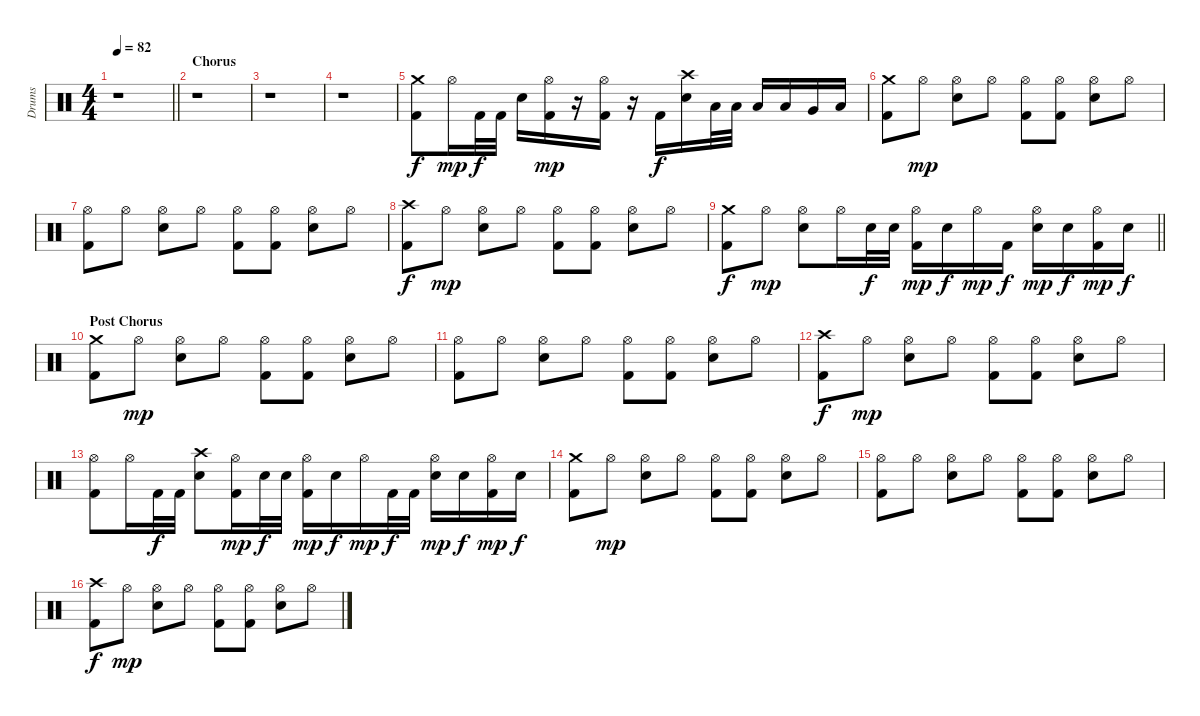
\track ("Drums" "Drums") {instrument percussion}
\staff {score}
\articulation defaults
\ts (4 4)
\tempo 82
\clef neutral
\barLineRight lightlight
\ks c
r.1{dy f} |
\section ("" "Chorus")
r.1 |
r.1 |
r.1 |
("Crash medium (hit)" "Kick (hit) 2").8 "Hi-Hat (open)".16{dy mp} "Kick (hit) 2".32{dy f} "Kick (hit) 2".32 "Snare (hit) 2".16 ("Hi-Hat (open)" "Kick (hit) 2").16{dy mp} r.16 ("Hi-Hat (open)" "Kick (hit) 2").16 r.16 "Kick (hit) 2".16{dy f} ("Crash high (hit)" "Snare (hit) 2").16 "Low Tom (hit)".32 "Low Tom (hit)".32 "Low Tom (hit)".16 "Low Tom (hit)".16 "Very Low Tom (hit)".16 "Low Floor Tom (hit)".16 |
("Crash medium (hit)" "Kick (hit) 2").8 "Hi-Hat (open)".8{dy mp} ("Hi-Hat (open)" "Snare (hit) 2").8 "Hi-Hat (open)".8 ("Hi-Hat (open)" "Kick (hit) 2").8 ("Hi-Hat (open)" "Kick (hit) 2").8 ("Hi-Hat (open)" "Snare (hit) 2").8 "Hi-Hat (open)".8 |
("Hi-Hat (open)" "Kick (hit) 2").8 "Hi-Hat (open)".8 ("Hi-Hat (open)" "Snare (hit) 2").8 "Hi-Hat (open)".8 ("Hi-Hat (open)" "Kick (hit) 2").8 ("Hi-Hat (open)" "Kick (hit) 2").8 ("Hi-Hat (open)" "Snare (hit) 2").8 "Hi-Hat (open)".8 |
("Crash high (hit)" "Kick (hit) 2").8{dy f} "Hi-Hat (open)".8{dy mp} ("Hi-Hat (open)" "Snare (hit) 2").8 "Hi-Hat (open)".8 ("Hi-Hat (open)" "Kick (hit) 2").8 ("Hi-Hat (open)" "Kick (hit) 2").8 ("Hi-Hat (open)" "Snare (hit) 2").8 "Hi-Hat (open)".8 |
\barLineRight lightlight
("Crash medium (hit)" "Kick (hit) 2").8{dy f} "Hi-Hat (open)".8{dy mp} ("Hi-Hat (open)" "Snare (hit) 2").8 "Hi-Hat (open)".16 "Snare (hit) 2".32{dy f} "Snare (hit) 2".32 ("Hi-Hat (open)" "Kick (hit) 2").16{dy mp} "Snare (hit) 2".16{dy f} "Hi-Hat (open)".16{dy mp} "Kick (hit) 2".16{dy f} ("Hi-Hat (open)" "Snare (hit) 2").16{dy mp} "Snare (hit) 2".16{dy f} ("Hi-Hat (open)" "Kick (hit) 2").16{dy mp} "Snare (hit) 2".16{dy f} |
\section ("" "Post Chorus")
("Crash medium (hit)" "Kick (hit) 2").8 "Hi-Hat (open)".8{dy mp} ("Hi-Hat (open)" "Snare (hit) 2").8 "Hi-Hat (open)".8 ("Hi-Hat (open)" "Kick (hit) 2").8 ("Hi-Hat (open)" "Kick (hit) 2").8 ("Hi-Hat (open)" "Snare (hit) 2").8 "Hi-Hat (open)".8 |
("Hi-Hat (open)" "Kick (hit) 2").8 "Hi-Hat (open)".8 ("Hi-Hat (open)" "Snare (hit) 2").8 "Hi-Hat (open)".8 ("Hi-Hat (open)" "Kick (hit) 2").8 ("Hi-Hat (open)" "Kick (hit) 2").8 ("Hi-Hat (open)" "Snare (hit) 2").8 "Hi-Hat (open)".8 |
("Crash high (hit)" "Kick (hit) 2").8{dy f} "Hi-Hat (open)".8{dy mp} ("Hi-Hat (open)" "Snare (hit) 2").8 "Hi-Hat (open)".8 ("Hi-Hat (open)" "Kick (hit) 2").8 ("Hi-Hat (open)" "Kick (hit) 2").8 ("Hi-Hat (open)" "Snare (hit) 2").8 "Hi-Hat (open)".8 |
("Hi-Hat (open)" "Kick (hit) 2").8 "Hi-Hat (open)".16 "Kick (hit) 2".32{dy f} "Kick (hit) 2".32 ("Crash high (hit)" "Snare (hit) 2").8 ("Hi-Hat (open)" "Kick (hit) 2").16{dy mp} "Snare (hit) 2".32{dy f} "Snare (hit) 2".32 ("Hi-Hat (open)" "Kick (hit) 2").16{dy mp} "Snare (hit) 2".16{dy f} "Hi-Hat (open)".16{dy mp} "Kick (hit) 2".32{dy f} "Kick (hit) 2".32 ("Hi-Hat (open)" "Snare (hit) 2").16{dy mp} "Snare (hit) 2".16{dy f} ("Hi-Hat (open)" "Kick (hit) 2").16{dy mp} "Snare (hit) 2".16{dy f} |
("Crash medium (hit)" "Kick (hit) 2").8 "Hi-Hat (open)".8{dy mp} ("Hi-Hat (open)" "Snare (hit) 2").8 "Hi-Hat (open)".8 ("Hi-Hat (open)" "Kick (hit) 2").8 ("Hi-Hat (open)" "Kick (hit) 2").8 ("Hi-Hat (open)" "Snare (hit) 2").8 "Hi-Hat (open)".8 |
("Hi-Hat (open)" "Kick (hit) 2").8 "Hi-Hat (open)".8 ("Hi-Hat (open)" "Snare (hit) 2").8 "Hi-Hat (open)".8 ("Hi-Hat (open)" "Kick (hit) 2").8 ("Hi-Hat (open)" "Kick (hit) 2").8 ("Hi-Hat (open)" "Snare (hit) 2").8 "Hi-Hat (open)".8 |
("Crash high (hit)" "Kick (hit) 2").8{dy f} "Hi-Hat (open)".8{dy mp} ("Hi-Hat (open)" "Snare (hit) 2").8 "Hi-Hat (open)".8 ("Hi-Hat (open)" "Kick (hit) 2").8 ("Hi-Hat (open)" "Kick (hit) 2").8 ("Hi-Hat (open)" "Snare (hit) 2").8 "Hi-Hat (open)".8
